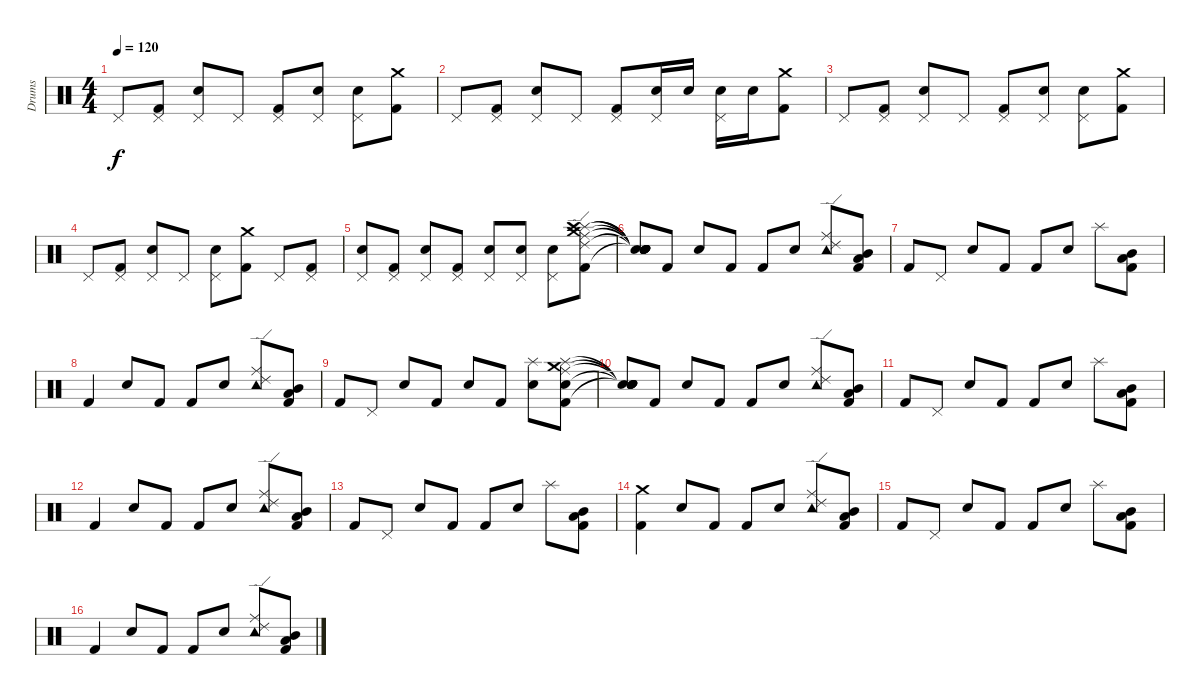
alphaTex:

\track ("Drums" "Drums") {instrument percussion}
\staff {score}
\articulation defaults
\ts (4 4)
\tempo 120
\clef neutral
\ks c "Pedal Hi-Hat (hit)".8{dy f}
("Pedal Hi-Hat (hit)" "Kick (hit) 2").8 ("Pedal Hi-Hat (hit)" "Snare (hit) 2").8 "Pedal Hi-Hat (hit)".8 ("Pedal Hi-Hat (hit)" "Kick (hit) 2").8 ("Pedal Hi-Hat (hit)" "Snare (hit) 2").8 ("Pedal Hi-Hat (hit)" "Snare (hit) 2").8 ("Crash medium (hit)" "Kick (hit) 2").8 |
"Pedal Hi-Hat (hit)".8 ("Pedal Hi-Hat (hit)" "Kick (hit) 2").8 ("Pedal Hi-Hat (hit)" "Snare (hit) 2").8 "Pedal Hi-Hat (hit)".8 ("Pedal Hi-Hat (hit)" "Kick (hit) 2").8 ("Pedal Hi-Hat (hit)" "Snare (hit) 2").16 "Snare (hit) 2".16 ("Pedal Hi-Hat (hit)" "Snare (hit) 2").16 "Snare (hit) 2".16 ("Kick (hit) 2" "Crash medium (hit)").8 |
"Pedal Hi-Hat (hit)".8 ("Pedal Hi-Hat (hit)" "Kick (hit) 2").8 ("Pedal Hi-Hat (hit)" "Snare (hit) 2").8 "Pedal Hi-Hat (hit)".8 ("Pedal Hi-Hat (hit)" "Kick (hit) 2").8 ("Pedal Hi-Hat (hit)" "Snare (hit) 2").8 ("Pedal Hi-Hat (hit)" "Snare (hit) 2").8 ("Kick (hit) 2" "Crash medium (hit)").8 |
"Pedal Hi-Hat (hit)".8 ("Pedal Hi-Hat (hit)" "Kick (hit) 2").8 ("Pedal Hi-Hat (hit)" "Snare (hit) 2").8 "Pedal Hi-Hat (hit)".8 ("Pedal Hi-Hat (hit)" "Snare (hit) 2").8 ("Crash medium (hit)" "Kick (hit) 2").8 "Pedal Hi-Hat (hit)".8 ("Pedal Hi-Hat (hit)" "Kick (hit) 2").8 |
("Pedal Hi-Hat (hit)" "Snare (hit) 2").8 ("Pedal Hi-Hat (hit)" "Kick (hit) 2").8 ("Pedal Hi-Hat (hit)" "Snare (hit) 2").8 ("Pedal Hi-Hat (hit)" "Kick (hit) 2").8 ("Pedal Hi-Hat (hit)" "Snare (hit) 2").8 ("Pedal Hi-Hat (hit)" "Snare (hit) 2").8 ("Pedal Hi-Hat (hit)" "Snare (hit) 2").8 ("Ride (edge) 2" "Ride (middle)" "Splash (hit)" "Crash medium (hit)" "Crash high (hit)" "Kick (hit) 2").8 |
("Snare (hit)"{t} "Snare (hit)"{t} "Snare (hit)"{t} "Snare (hit)"{t} "Snare (hit)"{t} "Snare (hit)"{t}).8 "Kick (hit) 2".8 "Snare (hit) 2".8 "Kick (hit) 2".8 "Kick (hit) 2".8 "Snare (hit) 2".8 ("Ride (edge) 2" "Tambourine (hit)" "Ride (middle)").8 ("Mid Tom (hit)" "Low Tom (hit)" "Kick (hit) 2").8 |
"Kick (hit) 2".8 "Pedal Hi-Hat (hit)".8 "Snare (hit) 2".8 "Kick (hit) 2".8 "Kick (hit) 2".8 "Snare (hit) 2".8 "Splash (hit)".8 ("Low Tom (hit)" "Mid Tom (hit)" "Kick (hit) 2").8 |
"Kick (hit) 2".4 "Snare (hit) 2".8 "Kick (hit) 2".8 "Kick (hit) 2".8 "Snare (hit) 2".8 ("Tambourine (hit)" "Ride (middle)" "Ride (edge) 2").8 ("Low Tom (hit)" "Mid Tom (hit)" "Kick (hit) 2").8 |
"Kick (hit) 2".8 "Pedal Hi-Hat (hit)".8 "Snare (hit) 2".8 "Kick (hit) 2".8 "Snare (hit) 2".8 "Kick (hit) 2".8 ("Snare (hit) 2" "Splash (hit)").8 ("Ride (middle)" "Crash medium (hit)" "Splash (hit)" "Snare (hit) 2" "Kick (hit) 2").8 |
("Snare (hit)"{t} "Snare (hit)"{t} "Snare (hit)"{t} "Snare (hit)"{t} "Snare (hit)"{t}).8 "Kick (hit) 2".8 "Snare (hit) 2".8 "Kick (hit) 2".8 "Kick (hit) 2".8 "Snare (hit) 2".8 ("Ride (edge) 2" "Tambourine (hit)" "Ride (middle)").8 ("Low Tom (hit)" "Mid Tom (hit)" "Kick (hit) 2").8 |
"Kick (hit) 2".8 "Pedal Hi-Hat (hit)".8 "Snare (hit) 2".8 "Kick (hit) 2".8 "Kick (hit) 2".8 "Snare (hit) 2".8 "Splash (hit)".8 ("Kick (hit) 2" "Low Tom (hit)" "Mid Tom (hit)").8 |
"Kick (hit) 2".4 "Snare (hit) 2".8 "Kick (hit) 2".8 "Kick (hit) 2".8 "Snare (hit) 2".8 ("Ride (edge) 2" "Tambourine (hit)" "Ride (middle)").8 ("Kick (hit) 2" "Low Tom (hit)" "Mid Tom (hit)").8 |
"Kick (hit) 2".8 "Pedal Hi-Hat (hit)".8 "Snare (hit) 2".8 "Kick (hit) 2".8 "Kick (hit) 2".8 "Snare (hit) 2".8 "Splash (hit)".8 ("Kick (hit) 2" "Low Tom (hit)" "Mid Tom (hit)").8 |
("Kick (hit) 2" "Crash medium (hit)").4 "Snare (hit) 2".8 "Kick (hit) 2".8 "Kick (hit) 2".8 "Snare (hit) 2".8 ("Tambourine (hit)" "Ride (middle)" "Ride (edge) 2").8 ("Low Tom (hit)" "Mid Tom (hit)" "Kick (hit) 2").8 |
"Kick (hit) 2".8 "Pedal Hi-Hat (hit)".8 "Snare (hit) 2".8 "Kick (hit) 2".8 "Kick (hit) 2".8 "Snare (hit) 2".8 "Splash (hit)".8 ("Low Tom (hit)" "Mid Tom (hit)" "Kick (hit) 2").8 |
"Kick (hit) 2".4 "Snare (hit) 2".8 "Kick (hit) 2".8 "Kick (hit) 2".8 "Snare (hit) 2".8 ("Ride (edge) 2" "Tambourine (hit)" "Ride (middle)").8 ("Low Tom (hit)" "Mid Tom (hit)" "Kick (hit) 2").8
